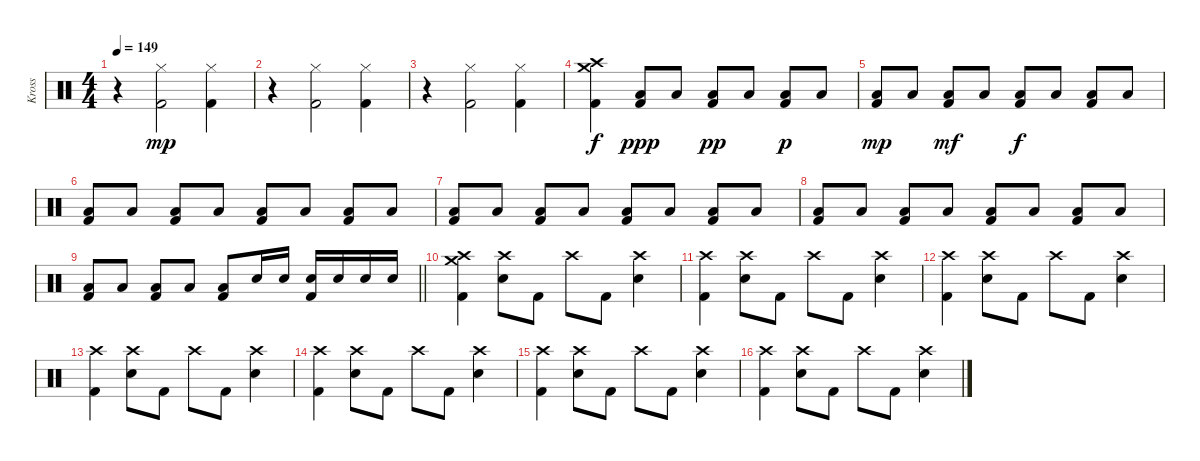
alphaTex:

\track ("Kross" "Kross") {instrument percussion}
\staff {score}
\articulation defaults
\ts (4 4)
\tempo 149
\clef neutral
\ks c
r.4{dy mp} ("Hi-Hat (closed)" "Kick (hit) 2").2 ("Hi-Hat (closed)" "Kick (hit) 2").4 |
r.4 ("Hi-Hat (closed)" "Kick (hit) 2").2 ("Hi-Hat (closed)" "Kick (hit) 2").4 |
r.4 ("Hi-Hat (closed)" "Kick (hit) 2").2 ("Hi-Hat (closed)" "Kick (hit) 2").4 |
("Crash high (hit)" "Crash medium (hit)" "Kick (hit) 2").4{dy f} ("Low Floor Tom (hit)" "Kick (hit) 2").8{dy ppp} "Low Floor Tom (hit)".8 ("Low Floor Tom (hit)" "Kick (hit) 2").8{dy pp} "Low Floor Tom (hit)".8 ("Low Floor Tom (hit)" "Kick (hit) 2").8{dy p} "Low Floor Tom (hit)".8 |
("Low Floor Tom (hit)" "Kick (hit) 2").8{dy mp} "Low Floor Tom (hit)".8 ("Low Floor Tom (hit)" "Kick (hit) 2").8{dy mf} "Low Floor Tom (hit)".8 ("Low Floor Tom (hit)" "Kick (hit) 2").8{dy f} "Low Floor Tom (hit)".8 ("Low Floor Tom (hit)" "Kick (hit) 2").8 "Low Floor Tom (hit)".8 |
("Low Floor Tom (hit)" "Kick (hit) 2").8 "Low Floor Tom (hit)".8 ("Low Floor Tom (hit)" "Kick (hit) 2").8 "Low Floor Tom (hit)".8 ("Low Floor Tom (hit)" "Kick (hit) 2").8 "Low Floor Tom (hit)".8 ("Low Floor Tom (hit)" "Kick (hit) 2").8 "Low Floor Tom (hit)".8 |
("Low Floor Tom (hit)" "Kick (hit) 2").8 "Low Floor Tom (hit)".8 ("Low Floor Tom (hit)" "Kick (hit) 2").8 "Low Floor Tom (hit)".8 ("Low Floor Tom (hit)" "Kick (hit) 2").8 "Low Floor Tom (hit)".8 ("Low Floor Tom (hit)" "Kick (hit) 2").8 "Low Floor Tom (hit)".8 |
("Low Floor Tom (hit)" "Kick (hit) 2").8 "Low Floor Tom (hit)".8 ("Low Floor Tom (hit)" "Kick (hit) 2").8 "Low Floor Tom (hit)".8 ("Low Floor Tom (hit)" "Kick (hit) 2").8 "Low Floor Tom (hit)".8 ("Low Floor Tom (hit)" "Kick (hit) 2").8 "Low Floor Tom (hit)".8 |
\barLineRight lightlight
("Low Floor Tom (hit)" "Kick (hit) 2").8 "Low Floor Tom (hit)".8 ("Low Floor Tom (hit)" "Kick (hit) 2").8 "Low Floor Tom (hit)".8 ("Low Floor Tom (hit)" "Kick (hit) 2").8 "Electric Snare (hit)".16 "Electric Snare (hit)".16 ("Electric Snare (hit)" "Kick (hit) 2").16 "Electric Snare (hit)".16 "Electric Snare (hit)".16 "Electric Snare (hit)".16 |
("Crash medium (hit)" "Crash high (hit)" "Kick (hit) 2").4 ("Crash high (hit)" "Electric Snare (hit)").8 "Kick (hit) 2".8 "Crash high (hit)".8 "Kick (hit) 2".8 ("Crash high (hit)" "Electric Snare (hit)").4 |
("Crash high (hit)" "Kick (hit) 2").4 ("Crash high (hit)" "Electric Snare (hit)").8 "Kick (hit) 2".8 "Crash high (hit)".8 "Kick (hit) 2".8 ("Crash high (hit)" "Electric Snare (hit)").4 |
("Crash high (hit)" "Kick (hit) 2").4 ("Crash high (hit)" "Electric Snare (hit)").8 "Kick (hit) 2".8 "Crash high (hit)".8 "Kick (hit) 2".8 ("Crash high (hit)" "Electric Snare (hit)").4 |
("Crash high (hit)" "Kick (hit) 2").4 ("Crash high (hit)" "Electric Snare (hit)").8 "Kick (hit) 2".8 "Crash high (hit)".8 "Kick (hit) 2".8 ("Crash high (hit)" "Electric Snare (hit)").4 |
("Crash high (hit)" "Kick (hit) 2").4 ("Crash high (hit)" "Electric Snare (hit)").8 "Kick (hit) 2".8 "Crash high (hit)".8 "Kick (hit) 2".8 ("Crash high (hit)" "Electric Snare (hit)").4 |
("Crash high (hit)" "Kick (hit) 2").4 ("Crash high (hit)" "Electric Snare (hit)").8 "Kick (hit) 2".8 "Crash high (hit)".8 "Kick (hit) 2".8 ("Crash high (hit)" "Electric Snare (hit)").4 |
("Crash high (hit)" "Kick (hit) 2").4 ("Crash high (hit)" "Electric Snare (hit)").8 "Kick (hit) 2".8 "Crash high (hit)".8 "Kick (hit) 2".8 ("Crash high (hit)" "Electric Snare (hit)").4
